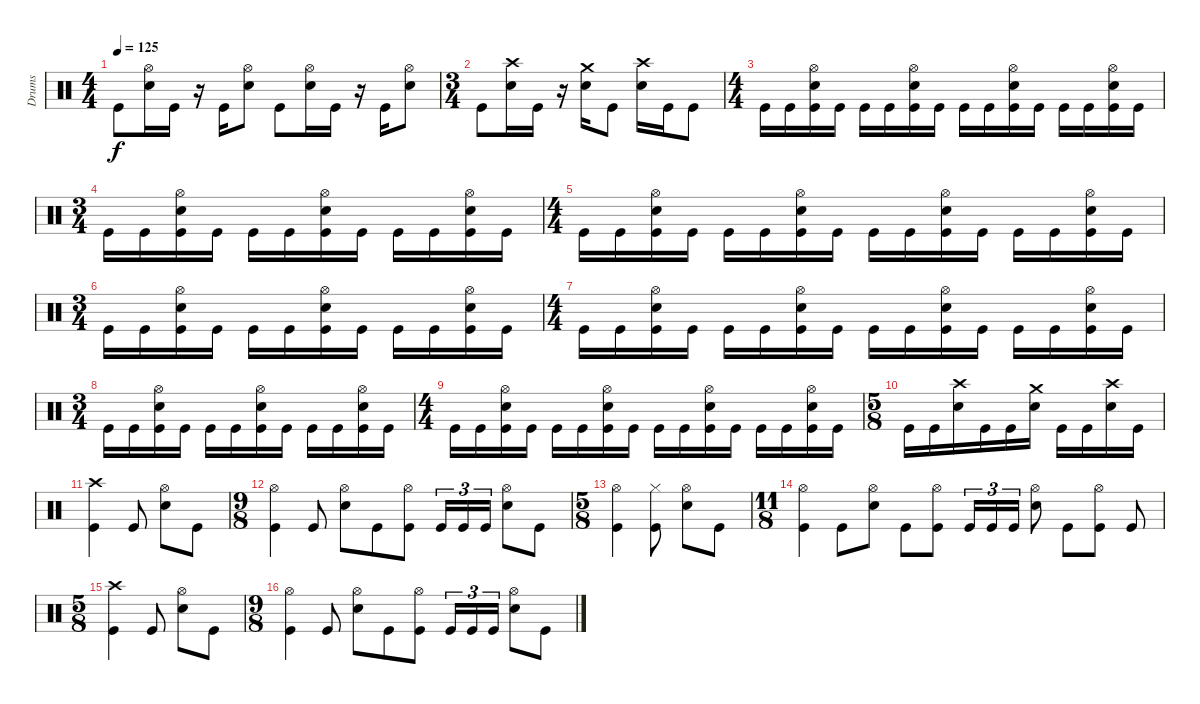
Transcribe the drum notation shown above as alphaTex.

\track ("Drums" "Drums") {instrument percussion}
\staff {score}
\articulation defaults
\ts (4 4)
\tempo 125
\clef neutral
\ks c "Kick (hit)".8{dy f}
("Snare (hit) 2" "Hi-Hat (open)").16 "Kick (hit)".16 r.16 "Kick (hit)".16 ("Snare (hit) 2" "Hi-Hat (open)").8 "Kick (hit)".8 ("Snare (hit) 2" "Hi-Hat (open)").16 "Kick (hit)".16 r.16 "Kick (hit)".16 ("Snare (hit) 2" "Hi-Hat (open)").8 |
\ts (3 4)
"Kick (hit)".8 ("Snare (hit) 2" "Crash high (hit)").16 "Kick (hit)".16 r.16 ("Snare (hit) 2" "Crash medium (hit)").16 "Kick (hit)".8 ("Snare (hit) 2" "Crash high (hit)").16 "Kick (hit)".16 "Kick (hit)".8 |
\ts (4 4)
"Kick (hit)".16 "Kick (hit)".16 ("Kick (hit)" "Snare (hit) 2" "Hi-Hat (open)").16 "Kick (hit)".16 "Kick (hit)".16 "Kick (hit)".16 ("Kick (hit)" "Snare (hit) 2" "Hi-Hat (open)").16 "Kick (hit)".16 "Kick (hit)".16 "Kick (hit)".16 ("Kick (hit)" "Snare (hit) 2" "Hi-Hat (open)").16 "Kick (hit)".16 "Kick (hit)".16 "Kick (hit)".16 ("Kick (hit)" "Snare (hit) 2" "Hi-Hat (open)").16 "Kick (hit)".16 |
\ts (3 4)
"Kick (hit)".16 "Kick (hit)".16 ("Kick (hit)" "Snare (hit) 2" "Hi-Hat (open)").16 "Kick (hit)".16 "Kick (hit)".16 "Kick (hit)".16 ("Kick (hit)" "Snare (hit) 2" "Hi-Hat (open)").16 "Kick (hit)".16 "Kick (hit)".16 "Kick (hit)".16 ("Kick (hit)" "Snare (hit) 2" "Hi-Hat (open)").16 "Kick (hit)".16 |
\ts (4 4)
"Kick (hit)".16 "Kick (hit)".16 ("Kick (hit)" "Snare (hit) 2" "Hi-Hat (open)").16 "Kick (hit)".16 "Kick (hit)".16 "Kick (hit)".16 ("Kick (hit)" "Snare (hit) 2" "Hi-Hat (open)").16 "Kick (hit)".16 "Kick (hit)".16 "Kick (hit)".16 ("Kick (hit)" "Snare (hit) 2" "Hi-Hat (open)").16 "Kick (hit)".16 "Kick (hit)".16 "Kick (hit)".16 ("Kick (hit)" "Snare (hit) 2" "Hi-Hat (open)").16 "Kick (hit)".16 |
\ts (3 4)
"Kick (hit)".16 "Kick (hit)".16 ("Kick (hit)" "Snare (hit) 2" "Hi-Hat (open)").16 "Kick (hit)".16 "Kick (hit)".16 "Kick (hit)".16 ("Kick (hit)" "Snare (hit) 2" "Hi-Hat (open)").16 "Kick (hit)".16 "Kick (hit)".16 "Kick (hit)".16 ("Kick (hit)" "Snare (hit) 2" "Hi-Hat (open)").16 "Kick (hit)".16 |
\ts (4 4)
"Kick (hit)".16 "Kick (hit)".16 ("Kick (hit)" "Snare (hit) 2" "Hi-Hat (open)").16 "Kick (hit)".16 "Kick (hit)".16 "Kick (hit)".16 ("Kick (hit)" "Snare (hit) 2" "Hi-Hat (open)").16 "Kick (hit)".16 "Kick (hit)".16 "Kick (hit)".16 ("Kick (hit)" "Snare (hit) 2" "Hi-Hat (open)").16 "Kick (hit)".16 "Kick (hit)".16 "Kick (hit)".16 ("Kick (hit)" "Snare (hit) 2" "Hi-Hat (open)").16 "Kick (hit)".16 |
\ts (3 4)
"Kick (hit)".16 "Kick (hit)".16 ("Kick (hit)" "Snare (hit) 2" "Hi-Hat (open)").16 "Kick (hit)".16 "Kick (hit)".16 "Kick (hit)".16 ("Kick (hit)" "Snare (hit) 2" "Hi-Hat (open)").16 "Kick (hit)".16 "Kick (hit)".16 "Kick (hit)".16 ("Kick (hit)" "Snare (hit) 2" "Hi-Hat (open)").16 "Kick (hit)".16 |
\ts (4 4)
"Kick (hit)".16 "Kick (hit)".16 ("Kick (hit)" "Snare (hit) 2" "Hi-Hat (open)").16 "Kick (hit)".16 "Kick (hit)".16 "Kick (hit)".16 ("Kick (hit)" "Snare (hit) 2" "Hi-Hat (open)").16 "Kick (hit)".16 "Kick (hit)".16 "Kick (hit)".16 ("Kick (hit)" "Snare (hit) 2" "Hi-Hat (open)").16 "Kick (hit)".16 "Kick (hit)".16 "Kick (hit)".16 ("Kick (hit)" "Snare (hit) 2" "Hi-Hat (open)").16 "Kick (hit)".16 |
\ts (5 8)
"Kick (hit)".16 "Kick (hit)".16 ("Snare (hit) 2" "Crash high (hit)").16 "Kick (hit)".16 "Kick (hit)".16 ("Snare (hit) 2" "Crash medium (hit)").16 "Kick (hit)".16 "Kick (hit)".16 ("Snare (hit) 2" "Crash high (hit)").16 "Kick (hit)".16 |
("Kick (hit)" "Crash high (hit)").4 "Kick (hit)".8 ("Snare (hit) 2" "Hi-Hat (open)").8 "Kick (hit)".8 |
\ts (9 8)
("Kick (hit)" "Hi-Hat (open)").4 "Kick (hit)".8 ("Snare (hit) 2" "Hi-Hat (open)").8 "Kick (hit)".8 ("Kick (hit)" "Hi-Hat (open)").8 "Kick (hit)".16{tu (3 2)} "Kick (hit)".16{tu (3 2)} "Kick (hit)".16{tu (3 2)} ("Snare (hit) 2" "Hi-Hat (open)").8 "Kick (hit)".8 |
\ts (5 8)
("Kick (hit)" "Hi-Hat (open)").4 ("Kick (hit)" "Hi-Hat (closed)").8 ("Snare (hit) 2" "Hi-Hat (open)").8 "Kick (hit)".8 |
\ts (11 8)
("Kick (hit)" "Hi-Hat (open)").4 "Kick (hit)".8 ("Snare (hit) 2" "Hi-Hat (open)").8 "Kick (hit)".8 ("Kick (hit)" "Hi-Hat (open)").8 "Kick (hit)".16{tu (3 2)} "Kick (hit)".16{tu (3 2)} "Kick (hit)".16{tu (3 2)} ("Snare (hit) 2" "Hi-Hat (open)").8 "Kick (hit)".8 ("Kick (hit)" "Hi-Hat (open)").8 "Kick (hit)".8 |
\ts (5 8)
("Kick (hit)" "Crash high (hit)").4 "Kick (hit)".8 ("Snare (hit) 2" "Hi-Hat (open)").8 "Kick (hit)".8 |
\ts (9 8)
("Kick (hit)" "Hi-Hat (open)").4 "Kick (hit)".8 ("Snare (hit) 2" "Hi-Hat (open)").8 "Kick (hit)".8 ("Kick (hit)" "Hi-Hat (open)").8 "Kick (hit)".16{tu (3 2)} "Kick (hit)".16{tu (3 2)} "Kick (hit)".16{tu (3 2)} ("Snare (hit) 2" "Hi-Hat (open)").8 "Kick (hit)".8
